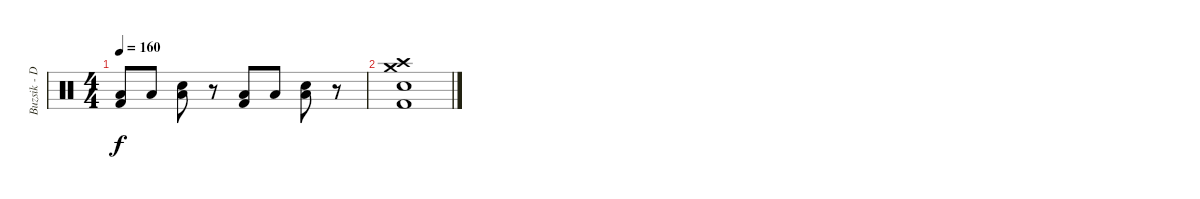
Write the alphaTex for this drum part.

\track ("Buzsik - Dob" "Buzsik - D") {instrument percussion}
\staff {score}
\articulation defaults
\ts (4 4)
\tempo 160
\clef neutral
\ks c
("Low Tom (hit)" "Kick (hit) 2").8{dy f} "Low Tom (hit)".8 ("Low Tom (hit)" "Electric Snare (hit)").8 r.8 ("Low Tom (hit)" "Kick (hit) 2").8 "Low Tom (hit)".8 ("Low Tom (hit)" "Electric Snare (hit)").8 r.8 |
("Crash high (hit)" "Crash medium (hit)" "Electric Snare (hit)" "Kick (hit) 2").1
